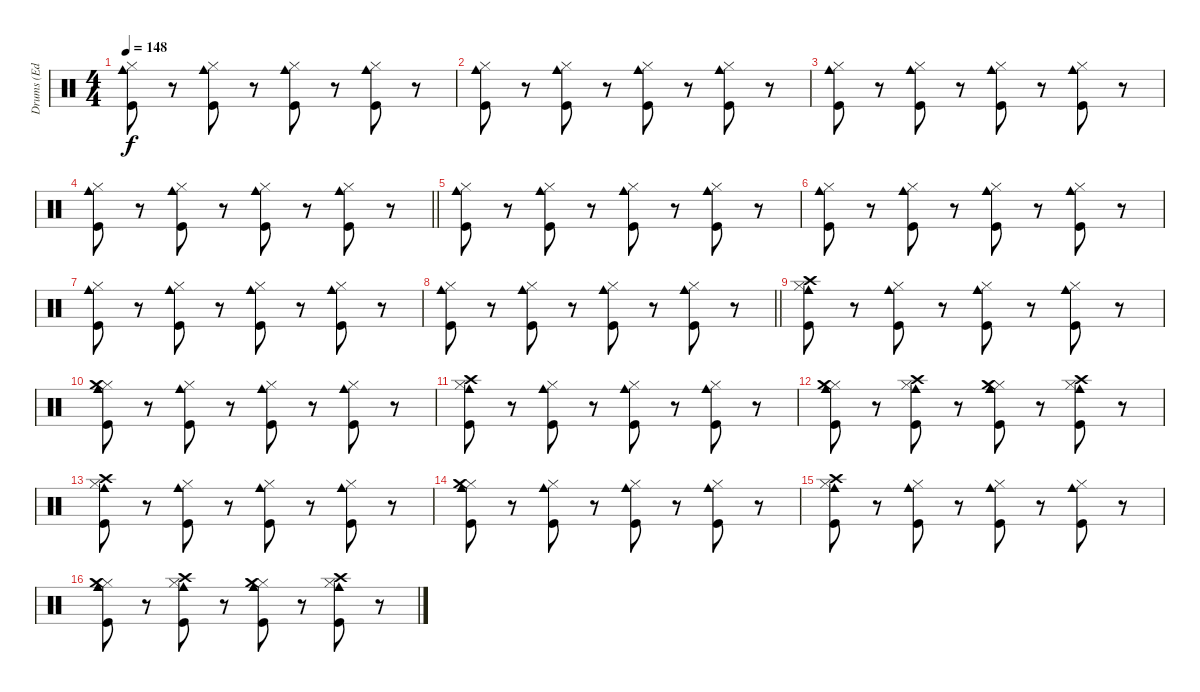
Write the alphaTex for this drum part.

\track ("Drums (Ed Lay)" "Drums (Ed ") {instrument percussion}
\staff {score}
\articulation defaults
\ts (4 4)
\tempo 148
\clef neutral
\ks c
("Cowbell medium (hit)" "Hi-Hat (closed)" "Kick (hit)").8{dy f} r.8 ("Cowbell medium (hit)" "Hi-Hat (closed)" "Kick (hit)").8 r.8 ("Cowbell medium (hit)" "Hi-Hat (closed)" "Kick (hit)").8 r.8 ("Cowbell medium (hit)" "Hi-Hat (closed)" "Kick (hit)").8 r.8 |
("Cowbell medium (hit)" "Hi-Hat (closed)" "Kick (hit)").8 r.8 ("Cowbell medium (hit)" "Hi-Hat (closed)" "Kick (hit)").8 r.8 ("Cowbell medium (hit)" "Hi-Hat (closed)" "Kick (hit)").8 r.8 ("Cowbell medium (hit)" "Hi-Hat (closed)" "Kick (hit)").8 r.8 |
("Cowbell medium (hit)" "Hi-Hat (closed)" "Kick (hit)").8 r.8 ("Cowbell medium (hit)" "Hi-Hat (closed)" "Kick (hit)").8 r.8 ("Cowbell medium (hit)" "Hi-Hat (closed)" "Kick (hit)").8 r.8 ("Cowbell medium (hit)" "Hi-Hat (closed)" "Kick (hit)").8 r.8 |
\barLineRight lightlight
("Cowbell medium (hit)" "Hi-Hat (closed)" "Kick (hit)").8 r.8 ("Cowbell medium (hit)" "Hi-Hat (closed)" "Kick (hit)").8 r.8 ("Cowbell medium (hit)" "Hi-Hat (closed)" "Kick (hit)").8 r.8 ("Cowbell medium (hit)" "Hi-Hat (closed)" "Kick (hit)").8 r.8 |
("Cowbell medium (hit)" "Hi-Hat (closed)" "Kick (hit)").8 r.8 ("Cowbell medium (hit)" "Hi-Hat (closed)" "Kick (hit)").8 r.8 ("Cowbell medium (hit)" "Hi-Hat (closed)" "Kick (hit)").8 r.8 ("Cowbell medium (hit)" "Hi-Hat (closed)" "Kick (hit)").8 r.8 |
("Cowbell medium (hit)" "Hi-Hat (closed)" "Kick (hit)").8 r.8 ("Cowbell medium (hit)" "Hi-Hat (closed)" "Kick (hit)").8 r.8 ("Cowbell medium (hit)" "Hi-Hat (closed)" "Kick (hit)").8 r.8 ("Cowbell medium (hit)" "Hi-Hat (closed)" "Kick (hit)").8 r.8 |
("Cowbell medium (hit)" "Hi-Hat (closed)" "Kick (hit)").8 r.8 ("Cowbell medium (hit)" "Hi-Hat (closed)" "Kick (hit)").8 r.8 ("Cowbell medium (hit)" "Hi-Hat (closed)" "Kick (hit)").8 r.8 ("Cowbell medium (hit)" "Hi-Hat (closed)" "Kick (hit)").8 r.8 |
\barLineRight lightlight
("Cowbell medium (hit)" "Hi-Hat (closed)" "Kick (hit)").8 r.8 ("Cowbell medium (hit)" "Hi-Hat (closed)" "Kick (hit)").8 r.8 ("Cowbell medium (hit)" "Hi-Hat (closed)" "Kick (hit)").8 r.8 ("Cowbell medium (hit)" "Hi-Hat (closed)" "Kick (hit)").8 r.8 |
("Cowbell medium (hit)" "Hi-Hat (closed)" "Crash high (hit)" "Kick (hit)").8 r.8 ("Cowbell medium (hit)" "Hi-Hat (closed)" "Kick (hit)").8 r.8 ("Cowbell medium (hit)" "Hi-Hat (closed)" "Kick (hit)").8 r.8 ("Cowbell medium (hit)" "Hi-Hat (closed)" "Kick (hit)").8 r.8 |
("Cowbell medium (hit)" "Hi-Hat (closed)" "Crash medium (hit)" "Kick (hit)").8 r.8 ("Cowbell medium (hit)" "Hi-Hat (closed)" "Kick (hit)").8 r.8 ("Cowbell medium (hit)" "Hi-Hat (closed)" "Kick (hit)").8 r.8 ("Cowbell medium (hit)" "Hi-Hat (closed)" "Kick (hit)").8 r.8 |
("Cowbell medium (hit)" "Hi-Hat (closed)" "Crash high (hit)" "Kick (hit)").8 r.8 ("Cowbell medium (hit)" "Hi-Hat (closed)" "Kick (hit)").8 r.8 ("Cowbell medium (hit)" "Hi-Hat (closed)" "Kick (hit)").8 r.8 ("Cowbell medium (hit)" "Hi-Hat (closed)" "Kick (hit)").8 r.8 |
("Cowbell medium (hit)" "Hi-Hat (closed)" "Crash medium (hit)" "Kick (hit)").8 r.8 ("Cowbell medium (hit)" "Hi-Hat (closed)" "Crash high (hit)" "Kick (hit)").8 r.8 ("Cowbell medium (hit)" "Hi-Hat (closed)" "Crash medium (hit)" "Kick (hit)").8 r.8 ("Cowbell medium (hit)" "Hi-Hat (closed)" "Crash high (hit)" "Kick (hit)").8 r.8 |
("Cowbell medium (hit)" "Hi-Hat (closed)" "Crash high (hit)" "Kick (hit)").8 r.8 ("Cowbell medium (hit)" "Hi-Hat (closed)" "Kick (hit)").8 r.8 ("Cowbell medium (hit)" "Hi-Hat (closed)" "Kick (hit)").8 r.8 ("Cowbell medium (hit)" "Hi-Hat (closed)" "Kick (hit)").8 r.8 |
("Cowbell medium (hit)" "Hi-Hat (closed)" "Crash medium (hit)" "Kick (hit)").8 r.8 ("Cowbell medium (hit)" "Hi-Hat (closed)" "Kick (hit)").8 r.8 ("Cowbell medium (hit)" "Hi-Hat (closed)" "Kick (hit)").8 r.8 ("Cowbell medium (hit)" "Hi-Hat (closed)" "Kick (hit)").8 r.8 |
("Cowbell medium (hit)" "Hi-Hat (closed)" "Crash high (hit)" "Kick (hit)").8 r.8 ("Cowbell medium (hit)" "Hi-Hat (closed)" "Kick (hit)").8 r.8 ("Cowbell medium (hit)" "Hi-Hat (closed)" "Kick (hit)").8 r.8 ("Cowbell medium (hit)" "Hi-Hat (closed)" "Kick (hit)").8 r.8 |
("Cowbell medium (hit)" "Hi-Hat (closed)" "Crash medium (hit)" "Kick (hit)").8 r.8 ("Cowbell medium (hit)" "Hi-Hat (closed)" "Crash high (hit)" "Kick (hit)").8 r.8 ("Cowbell medium (hit)" "Hi-Hat (closed)" "Crash medium (hit)" "Kick (hit)").8 r.8 ("Cowbell medium (hit)" "Hi-Hat (closed)" "Crash high (hit)" "Kick (hit)").8 r.8
